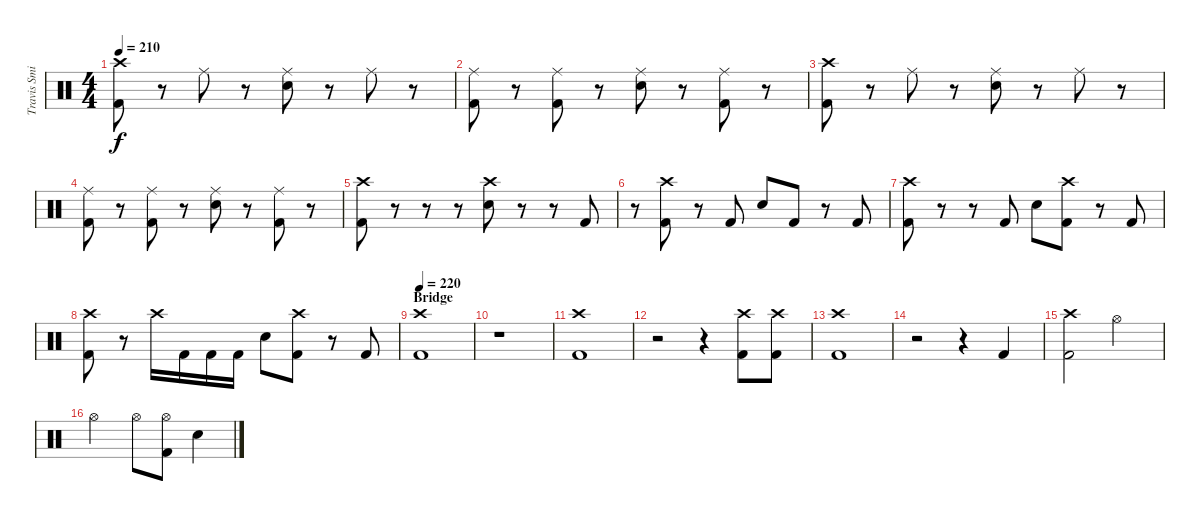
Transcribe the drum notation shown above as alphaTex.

\track ("Travis Smith" "Travis Smi") {instrument percussion}
\staff {score}
\articulation defaults
\ts (4 4)
\tempo 210
\clef neutral
\ks c
("Crash high (hit)" "Kick (hit) 2").8{dy f} r.8 "Ride (middle)".8 r.8 ("Ride (middle)" "Electric Snare (hit)").8 r.8 "Ride (middle)".8 r.8 |
("Ride (middle)" "Kick (hit) 2").8 r.8 ("Ride (middle)" "Kick (hit) 2").8 r.8 ("Ride (middle)" "Electric Snare (hit)").8 r.8 ("Ride (middle)" "Kick (hit) 2").8 r.8 |
("Crash high (hit)" "Kick (hit) 2").8 r.8 "Ride (middle)".8 r.8 ("Ride (middle)" "Electric Snare (hit)").8 r.8 "Ride (middle)".8 r.8 |
("Ride (middle)" "Kick (hit) 2").8 r.8 ("Ride (middle)" "Kick (hit) 2").8 r.8 ("Ride (middle)" "Electric Snare (hit)").8 r.8 ("Ride (middle)" "Kick (hit) 2").8 r.8 |
("Crash high (hit)" "Kick (hit) 2").8 r.8 r.8 r.8 ("Crash high (hit)" "Electric Snare (hit)").8 r.8 r.8 "Kick (hit) 2".8 |
r.8 ("Crash high (hit)" "Kick (hit) 2").8 r.8 "Kick (hit) 2".8 "Electric Snare (hit)".8 "Kick (hit) 2".8 r.8 "Kick (hit) 2".8 |
("Crash high (hit)" "Kick (hit) 2").8 r.8 r.8 "Kick (hit) 2".8 "Electric Snare (hit)".8 ("Crash high (hit)" "Kick (hit) 2").8 r.8 "Kick (hit) 2".8 |
("Crash high (hit)" "Kick (hit) 2").8 r.8 "Crash high (hit)".16 "Kick (hit) 2".16 "Kick (hit) 2".16 "Kick (hit) 2".16 "Electric Snare (hit)".8 ("Crash high (hit)" "Kick (hit) 2").8 r.8 "Kick (hit) 2".8 |
\section ("" "Bridge")
\tempo 220
("Crash high (hit)" "Kick (hit) 2").1 |
r.1 |
("Crash high (hit)" "Kick (hit) 2").1 |
r.2 r.4 ("Crash high (hit)" "Kick (hit) 2").8 ("Crash high (hit)" "Kick (hit) 2").8 |
("Crash high (hit)" "Kick (hit) 2").1 |
r.2 r.4 "Kick (hit) 2".4 |
("Crash high (hit)" "Kick (hit) 2").2 "Hi-Hat (open)".2 |
"Hi-Hat (open)".2 "Hi-Hat (open)".8 ("Hi-Hat (open)" "Kick (hit) 2").8 "Electric Snare (hit)".4
